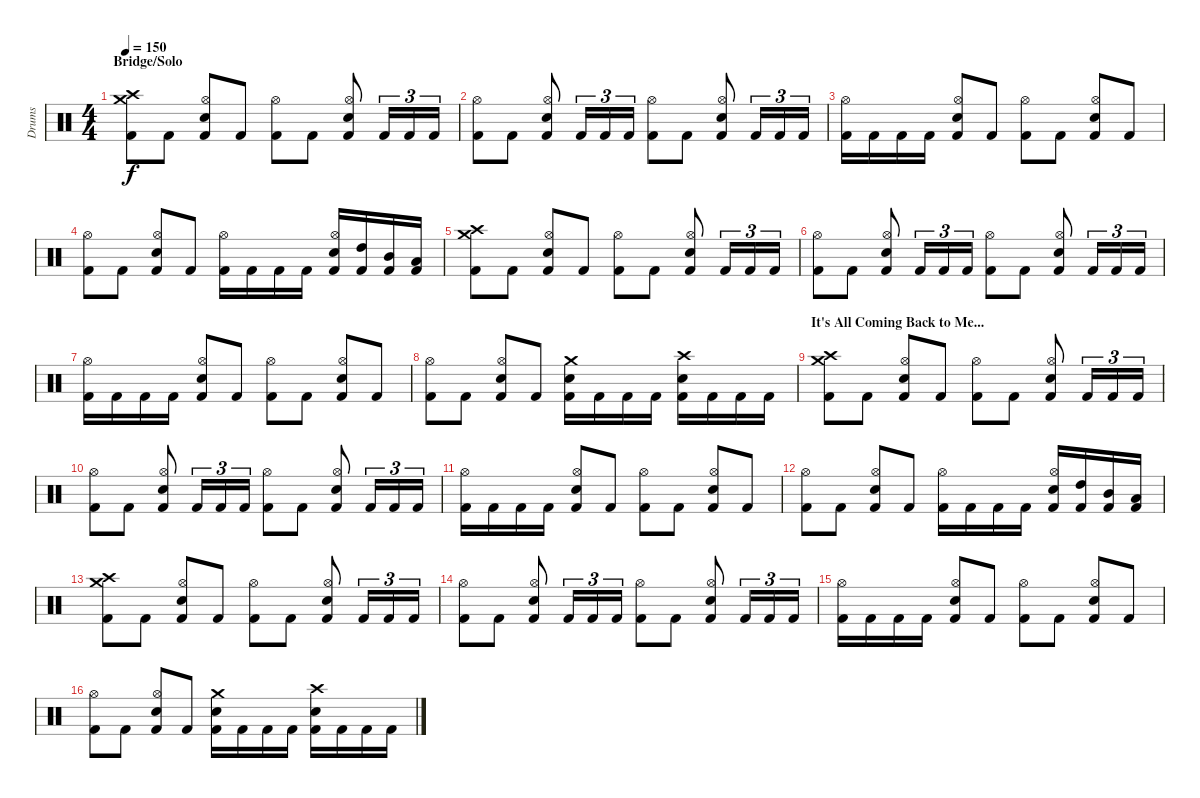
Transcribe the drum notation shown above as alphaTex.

\track ("Drums" "Drums") {instrument percussion}
\staff {score}
\articulation defaults
\ts (4 4)
\section ("" "Bridge/Solo")
\tempo 150
\clef neutral
\ks c
("Crash medium (hit)" "Crash high (hit)" "Kick (hit) 2").8{dy f} "Kick (hit) 2".8 ("Hi-Hat (open)" "Snare (hit) 2" "Kick (hit) 2").8 "Kick (hit) 2".8 ("Hi-Hat (open)" "Kick (hit) 2").8 "Kick (hit) 2".8 ("Hi-Hat (open)" "Snare (hit) 2" "Kick (hit) 2").8 "Kick (hit) 2".16{tu (3 2)} "Kick (hit) 2".16{tu (3 2)} "Kick (hit) 2".16{tu (3 2)} |
("Hi-Hat (open)" "Kick (hit) 2").8 "Kick (hit) 2".8 ("Hi-Hat (open)" "Snare (hit) 2" "Kick (hit) 2").8 "Kick (hit) 2".16{tu (3 2)} "Kick (hit) 2".16{tu (3 2)} "Kick (hit) 2".16{tu (3 2)} ("Hi-Hat (open)" "Kick (hit) 2").8 "Kick (hit) 2".8 ("Hi-Hat (open)" "Snare (hit) 2" "Kick (hit) 2").8 "Kick (hit) 2".16{tu (3 2)} "Kick (hit) 2".16{tu (3 2)} "Kick (hit) 2".16{tu (3 2)} |
("Hi-Hat (open)" "Kick (hit) 2").16 "Kick (hit) 2".16 "Kick (hit) 2".16 "Kick (hit) 2".16 ("Hi-Hat (open)" "Snare (hit) 2" "Kick (hit) 2").8 "Kick (hit) 2".8 ("Hi-Hat (open)" "Kick (hit) 2").8 "Kick (hit) 2".8 ("Hi-Hat (open)" "Snare (hit) 2" "Kick (hit) 2").8 "Kick (hit) 2".8 |
("Hi-Hat (open)" "Kick (hit) 2").8 "Kick (hit) 2".8 ("Hi-Hat (open)" "Snare (hit) 2" "Kick (hit) 2").8 "Kick (hit) 2".8 ("Hi-Hat (open)" "Kick (hit) 2").16 "Kick (hit) 2".16 "Kick (hit) 2".16 "Kick (hit) 2".16 ("Hi-Hat (open)" "Snare (hit) 2" "Kick (hit) 2").16 ("High Tom (hit)" "Kick (hit) 2").16 ("Mid Tom (hit)" "Kick (hit) 2").16 ("Low Tom (hit)" "Kick (hit) 2").16 |
("Crash medium (hit)" "Crash high (hit)" "Kick (hit) 2").8 "Kick (hit) 2".8 ("Hi-Hat (open)" "Snare (hit) 2" "Kick (hit) 2").8 "Kick (hit) 2".8 ("Hi-Hat (open)" "Kick (hit) 2").8 "Kick (hit) 2".8 ("Hi-Hat (open)" "Snare (hit) 2" "Kick (hit) 2").8 "Kick (hit) 2".16{tu (3 2)} "Kick (hit) 2".16{tu (3 2)} "Kick (hit) 2".16{tu (3 2)} |
("Hi-Hat (open)" "Kick (hit) 2").8 "Kick (hit) 2".8 ("Hi-Hat (open)" "Snare (hit) 2" "Kick (hit) 2").8 "Kick (hit) 2".16{tu (3 2)} "Kick (hit) 2".16{tu (3 2)} "Kick (hit) 2".16{tu (3 2)} ("Hi-Hat (open)" "Kick (hit) 2").8 "Kick (hit) 2".8 ("Hi-Hat (open)" "Snare (hit) 2" "Kick (hit) 2").8 "Kick (hit) 2".16{tu (3 2)} "Kick (hit) 2".16{tu (3 2)} "Kick (hit) 2".16{tu (3 2)} |
("Hi-Hat (open)" "Kick (hit) 2").16 "Kick (hit) 2".16 "Kick (hit) 2".16 "Kick (hit) 2".16 ("Hi-Hat (open)" "Snare (hit) 2" "Kick (hit) 2").8 "Kick (hit) 2".8 ("Hi-Hat (open)" "Kick (hit) 2").8 "Kick (hit) 2".8 ("Hi-Hat (open)" "Snare (hit) 2" "Kick (hit) 2").8 "Kick (hit) 2".8 |
("Hi-Hat (open)" "Kick (hit) 2").8 "Kick (hit) 2".8 ("Hi-Hat (open)" "Snare (hit) 2" "Kick (hit) 2").8 "Kick (hit) 2".8 ("Crash medium (hit)" "Snare (hit) 2" "Kick (hit) 2").16 "Kick (hit) 2".16 "Kick (hit) 2".16 "Kick (hit) 2".16 ("Crash high (hit)" "Snare (hit) 2" "Kick (hit) 2").16 "Kick (hit) 2".16 "Kick (hit) 2".16 "Kick (hit) 2".16 |
\section ("" "It's All Coming Back to Me...")
("Crash medium (hit)" "Crash high (hit)" "Kick (hit) 2").8 "Kick (hit) 2".8 ("Hi-Hat (open)" "Snare (hit) 2" "Kick (hit) 2").8 "Kick (hit) 2".8 ("Hi-Hat (open)" "Kick (hit) 2").8 "Kick (hit) 2".8 ("Hi-Hat (open)" "Snare (hit) 2" "Kick (hit) 2").8 "Kick (hit) 2".16{tu (3 2)} "Kick (hit) 2".16{tu (3 2)} "Kick (hit) 2".16{tu (3 2)} |
("Hi-Hat (open)" "Kick (hit) 2").8 "Kick (hit) 2".8 ("Hi-Hat (open)" "Snare (hit) 2" "Kick (hit) 2").8 "Kick (hit) 2".16{tu (3 2)} "Kick (hit) 2".16{tu (3 2)} "Kick (hit) 2".16{tu (3 2)} ("Hi-Hat (open)" "Kick (hit) 2").8 "Kick (hit) 2".8 ("Hi-Hat (open)" "Snare (hit) 2" "Kick (hit) 2").8 "Kick (hit) 2".16{tu (3 2)} "Kick (hit) 2".16{tu (3 2)} "Kick (hit) 2".16{tu (3 2)} |
("Hi-Hat (open)" "Kick (hit) 2").16 "Kick (hit) 2".16 "Kick (hit) 2".16 "Kick (hit) 2".16 ("Hi-Hat (open)" "Snare (hit) 2" "Kick (hit) 2").8 "Kick (hit) 2".8 ("Hi-Hat (open)" "Kick (hit) 2").8 "Kick (hit) 2".8 ("Hi-Hat (open)" "Snare (hit) 2" "Kick (hit) 2").8 "Kick (hit) 2".8 |
("Hi-Hat (open)" "Kick (hit) 2").8 "Kick (hit) 2".8 ("Hi-Hat (open)" "Snare (hit) 2" "Kick (hit) 2").8 "Kick (hit) 2".8 ("Hi-Hat (open)" "Kick (hit) 2").16 "Kick (hit) 2".16 "Kick (hit) 2".16 "Kick (hit) 2".16 ("Hi-Hat (open)" "Snare (hit) 2" "Kick (hit) 2").16 ("High Tom (hit)" "Kick (hit) 2").16 ("Mid Tom (hit)" "Kick (hit) 2").16 ("Low Tom (hit)" "Kick (hit) 2").16 |
("Crash medium (hit)" "Crash high (hit)" "Kick (hit) 2").8 "Kick (hit) 2".8 ("Hi-Hat (open)" "Snare (hit) 2" "Kick (hit) 2").8 "Kick (hit) 2".8 ("Hi-Hat (open)" "Kick (hit) 2").8 "Kick (hit) 2".8 ("Hi-Hat (open)" "Snare (hit) 2" "Kick (hit) 2").8 "Kick (hit) 2".16{tu (3 2)} "Kick (hit) 2".16{tu (3 2)} "Kick (hit) 2".16{tu (3 2)} |
("Hi-Hat (open)" "Kick (hit) 2").8 "Kick (hit) 2".8 ("Hi-Hat (open)" "Snare (hit) 2" "Kick (hit) 2").8 "Kick (hit) 2".16{tu (3 2)} "Kick (hit) 2".16{tu (3 2)} "Kick (hit) 2".16{tu (3 2)} ("Hi-Hat (open)" "Kick (hit) 2").8 "Kick (hit) 2".8 ("Hi-Hat (open)" "Snare (hit) 2" "Kick (hit) 2").8 "Kick (hit) 2".16{tu (3 2)} "Kick (hit) 2".16{tu (3 2)} "Kick (hit) 2".16{tu (3 2)} |
("Hi-Hat (open)" "Kick (hit) 2").16 "Kick (hit) 2".16 "Kick (hit) 2".16 "Kick (hit) 2".16 ("Hi-Hat (open)" "Snare (hit) 2" "Kick (hit) 2").8 "Kick (hit) 2".8 ("Hi-Hat (open)" "Kick (hit) 2").8 "Kick (hit) 2".8 ("Hi-Hat (open)" "Snare (hit) 2" "Kick (hit) 2").8 "Kick (hit) 2".8 |
("Hi-Hat (open)" "Kick (hit) 2").8 "Kick (hit) 2".8 ("Hi-Hat (open)" "Snare (hit) 2" "Kick (hit) 2").8 "Kick (hit) 2".8 ("Crash medium (hit)" "Snare (hit) 2" "Kick (hit) 2").16 "Kick (hit) 2".16 "Kick (hit) 2".16 "Kick (hit) 2".16 ("Crash high (hit)" "Snare (hit) 2" "Kick (hit) 2").16 "Kick (hit) 2".16 "Kick (hit) 2".16 "Kick (hit) 2".16
